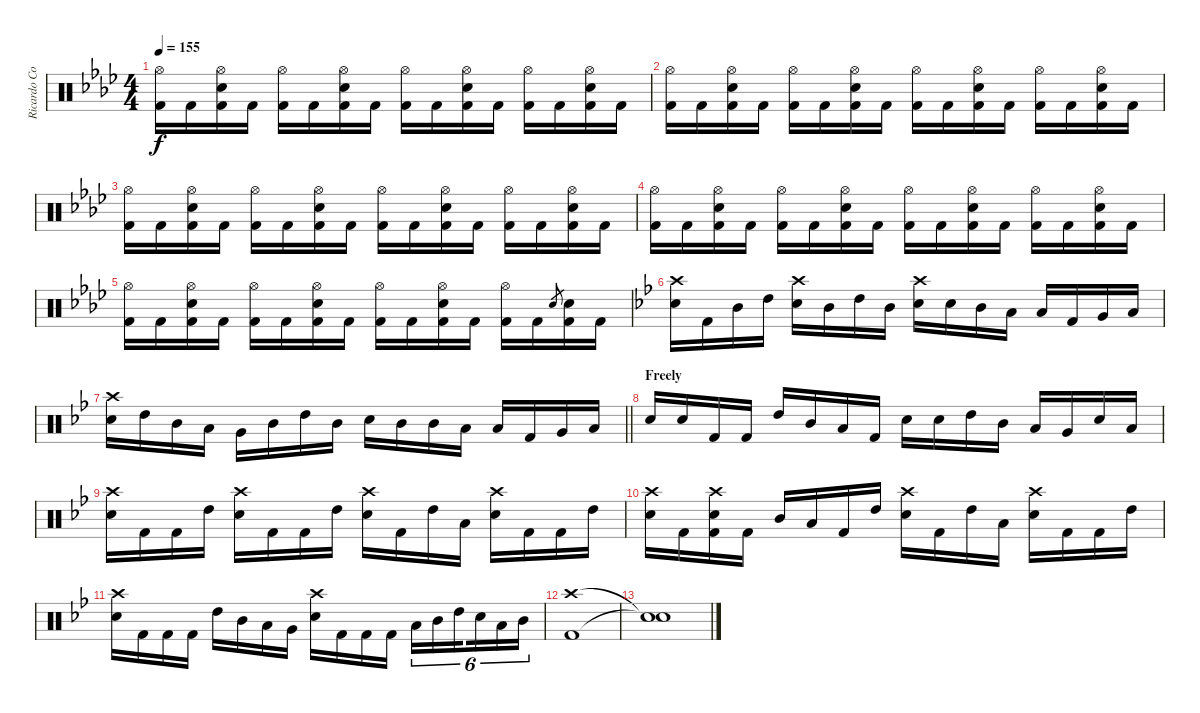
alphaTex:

\track ("Ricardo Confessori" "Ricardo Co") {instrument percussion}
\staff {score}
\articulation defaults
\ts (4 4)
\tempo 155
\clef neutral
\ks ab
("Hi-Hat (open)" "Kick (hit) 2").16{dy f} "Kick (hit) 2".16 ("Electric Snare (hit)" "Kick (hit) 2" "Hi-Hat (open)").16 "Kick (hit) 2".16 ("Kick (hit) 2" "Hi-Hat (open)").16 "Kick (hit) 2".16 ("Kick (hit) 2" "Hi-Hat (open)" "Electric Snare (hit)").16 "Kick (hit) 2".16 ("Kick (hit) 2" "Hi-Hat (open)").16 "Kick (hit) 2".16 ("Kick (hit) 2" "Hi-Hat (open)" "Electric Snare (hit)").16 "Kick (hit) 2".16 ("Kick (hit) 2" "Hi-Hat (open)").16 "Kick (hit) 2".16 ("Kick (hit) 2" "Hi-Hat (open)" "Electric Snare (hit)").16 "Kick (hit) 2".16 |
("Hi-Hat (open)" "Kick (hit) 2").16 "Kick (hit) 2".16 ("Electric Snare (hit)" "Kick (hit) 2" "Hi-Hat (open)").16 "Kick (hit) 2".16 ("Kick (hit) 2" "Hi-Hat (open)").16 "Kick (hit) 2".16 ("Kick (hit) 2" "Hi-Hat (open)" "Electric Snare (hit)").16 "Kick (hit) 2".16 ("Kick (hit) 2" "Hi-Hat (open)").16 "Kick (hit) 2".16 ("Kick (hit) 2" "Hi-Hat (open)" "Electric Snare (hit)").16 "Kick (hit) 2".16 ("Kick (hit) 2" "Hi-Hat (open)").16 "Kick (hit) 2".16 ("Kick (hit) 2" "Hi-Hat (open)" "Electric Snare (hit)").16 "Kick (hit) 2".16 |
("Hi-Hat (open)" "Kick (hit) 2").16 "Kick (hit) 2".16 ("Electric Snare (hit)" "Kick (hit) 2" "Hi-Hat (open)").16 "Kick (hit) 2".16 ("Kick (hit) 2" "Hi-Hat (open)").16 "Kick (hit) 2".16 ("Kick (hit) 2" "Hi-Hat (open)" "Electric Snare (hit)").16 "Kick (hit) 2".16 ("Kick (hit) 2" "Hi-Hat (open)").16 "Kick (hit) 2".16 ("Kick (hit) 2" "Hi-Hat (open)" "Electric Snare (hit)").16 "Kick (hit) 2".16 ("Kick (hit) 2" "Hi-Hat (open)").16 "Kick (hit) 2".16 ("Kick (hit) 2" "Hi-Hat (open)" "Electric Snare (hit)").16 "Kick (hit) 2".16 |
("Hi-Hat (open)" "Kick (hit) 2").16 "Kick (hit) 2".16 ("Electric Snare (hit)" "Kick (hit) 2" "Hi-Hat (open)").16 "Kick (hit) 2".16 ("Kick (hit) 2" "Hi-Hat (open)").16 "Kick (hit) 2".16 ("Kick (hit) 2" "Hi-Hat (open)" "Electric Snare (hit)").16 "Kick (hit) 2".16 ("Kick (hit) 2" "Hi-Hat (open)").16 "Kick (hit) 2".16 ("Kick (hit) 2" "Hi-Hat (open)" "Electric Snare (hit)").16 "Kick (hit) 2".16 ("Kick (hit) 2" "Hi-Hat (open)").16 "Kick (hit) 2".16 ("Kick (hit) 2" "Hi-Hat (open)" "Electric Snare (hit)").16 "Kick (hit) 2".16 |
("Hi-Hat (open)" "Kick (hit) 2").16 "Kick (hit) 2".16 ("Electric Snare (hit)" "Kick (hit) 2" "Hi-Hat (open)").16 "Kick (hit) 2".16 ("Kick (hit) 2" "Hi-Hat (open)").16 "Kick (hit) 2".16 ("Kick (hit) 2" "Hi-Hat (open)" "Electric Snare (hit)").16 "Kick (hit) 2".16 ("Kick (hit) 2" "Hi-Hat (open)").16 "Kick (hit) 2".16 ("Kick (hit) 2" "Hi-Hat (open)" "Electric Snare (hit)").16 "Kick (hit) 2".16 ("Kick (hit) 2" "Hi-Hat (open)").16 "Kick (hit) 2".16 "Electric Snare (hit)".8{gr} ("Kick (hit) 2" "Electric Snare (hit)").16 "Kick (hit) 2".16 |
\ks bb
("Crash high (hit)" "Electric Snare (hit)").16 "Kick (hit) 2".16 "Mid Tom (hit)".16 "High Tom (hit)".16 ("Crash high (hit)" "Electric Snare (hit)").16 "Mid Tom (hit)".16 "High Tom (hit)".16 "Mid Tom (hit)".16 ("Crash high (hit)" "Electric Snare (hit)").16 "Electric Snare (hit)".16 "Mid Tom (hit)".16 "Low Tom (hit)".16 "Low Tom (hit)".16 "Kick (hit) 2".16 "Very Low Tom (hit)".16 "Low Floor Tom (hit)".16 |
\barLineRight lightlight
("Crash high (hit)" "Electric Snare (hit)").16 "High Tom (hit)".16 "Mid Tom (hit)".16 "Low Tom (hit)".16 "Very Low Tom (hit)".16 "Mid Tom (hit)".16 "High Tom (hit)".16 "Mid Tom (hit)".16 "Electric Snare (hit)".16 "Mid Tom (hit)".16 "Mid Tom (hit)".16 "Low Tom (hit)".16 "Low Tom (hit)".16 "Kick (hit) 2".16 "Very Low Tom (hit)".16 "Low Floor Tom (hit)".16 |
\section ("" "Freely")
"Electric Snare (hit)".16 "Electric Snare (hit)".16 "Kick (hit) 2".16 "Kick (hit) 2".16 "High Tom (hit)".16 "Mid Tom (hit)".16 "Low Tom (hit)".16 "Kick (hit) 2".16 "Electric Snare (hit)".16 "Electric Snare (hit)".16 "High Tom (hit)".16 "Mid Tom (hit)".16 "Low Tom (hit)".16 "Very Low Tom (hit)".16 "Electric Snare (hit)".16 "Low Tom (hit)".16 |
("Crash high (hit)" "Electric Snare (hit)").16 "Kick (hit) 2".16 "Kick (hit) 2".16 "High Tom (hit)".16 ("Crash high (hit)" "Electric Snare (hit)").16 "Kick (hit) 2".16 "Kick (hit) 2".16 "High Tom (hit)".16 ("Crash high (hit)" "Electric Snare (hit)").16 "Kick (hit) 2".16 "High Tom (hit)".16 "Low Tom (hit)".16 ("Crash high (hit)" "Electric Snare (hit)").16 "Kick (hit) 2".16 "Kick (hit) 2".16 "High Tom (hit)".16 |
("Crash high (hit)" "Electric Snare (hit)").16 "Kick (hit) 2".16 ("Kick (hit) 2" "Crash high (hit)" "Electric Snare (hit)").16 "Kick (hit) 2".16 "Mid Tom (hit)".16 "Low Tom (hit)".16 "Kick (hit) 2".16 "High Tom (hit)".16 ("Crash high (hit)" "Electric Snare (hit)").16 "Kick (hit) 2".16 "High Tom (hit)".16 "Low Tom (hit)".16 ("Crash high (hit)" "Electric Snare (hit)").16 "Kick (hit) 2".16 "Kick (hit) 2".16 "High Tom (hit)".16 |
("Crash high (hit)" "Electric Snare (hit)").16 "Kick (hit) 2".16 "Kick (hit) 2".16 "Kick (hit) 2".16 "High Tom (hit)".16 "Mid Tom (hit)".16 "Low Tom (hit)".16 "Very Low Tom (hit)".16 ("Crash high (hit)" "Electric Snare (hit)").16 "Kick (hit) 2".16 "Kick (hit) 2".16 "Kick (hit) 2".16 "Low Tom (hit)".16{tu (6 4)} "Mid Tom (hit)".16{tu (6 4)} "High Tom (hit)".16{tu (6 4) beam splitsecondary} "Electric Snare (hit)".16{tu (6 4)} "Low Tom (hit)".16{tu (6 4)} "Mid Tom (hit)".16{tu (6 4)} |
("Crash high (hit)" "Kick (hit) 2").1 |
("Snare (hit)"{t} "Snare (hit)"{t}).1
